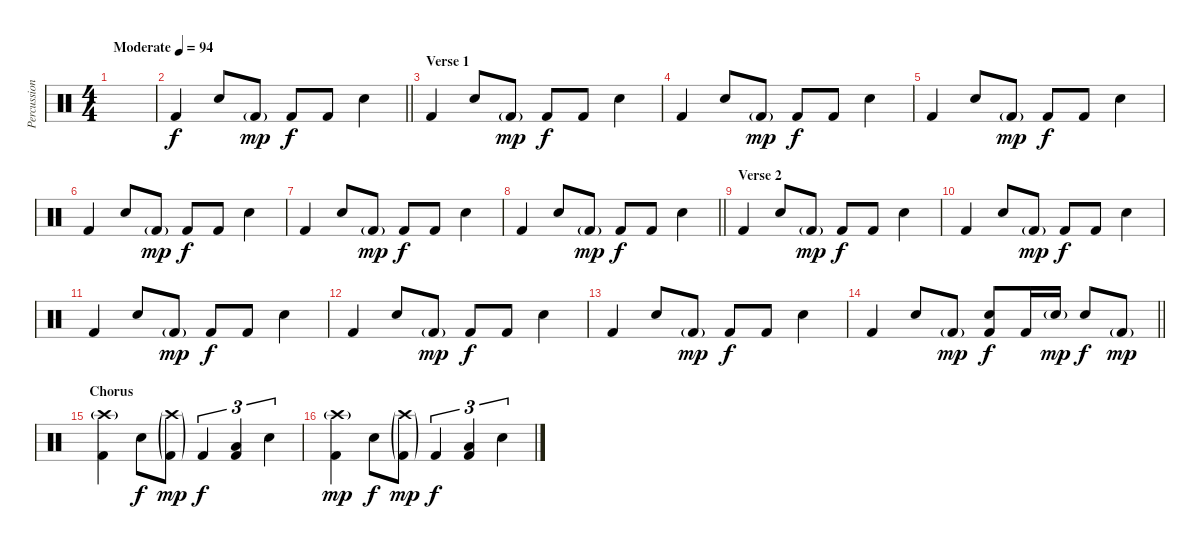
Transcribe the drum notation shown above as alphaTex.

\track ("Percussion" "Percussion") {instrument percussion}
\staff {score}
\articulation defaults
\ts (4 4)
\tempo (94 "Moderate")
\clef neutral
\ks c
|
\barLineRight lightlight "Kick (hit) 2".4 "Snare (hit) 2".8 "Kick (hit) 2"{g}.8{dy mp} "Kick (hit) 2".8{dy f} "Kick (hit) 2".8 "Snare (hit) 2".4
|
\section ("" "Verse 1")
"Kick (hit) 2".4 "Snare (hit) 2".8 "Kick (hit) 2"{g}.8{dy mp} "Kick (hit) 2".8{dy f} "Kick (hit) 2".8 "Snare (hit) 2".4 |
"Kick (hit) 2".4 "Snare (hit) 2".8 "Kick (hit) 2"{g}.8{dy mp} "Kick (hit) 2".8{dy f} "Kick (hit) 2".8 "Snare (hit) 2".4 |
"Kick (hit) 2".4 "Snare (hit) 2".8 "Kick (hit) 2"{g}.8{dy mp} "Kick (hit) 2".8{dy f} "Kick (hit) 2".8 "Snare (hit) 2".4 |
"Kick (hit) 2".4 "Snare (hit) 2".8 "Kick (hit) 2"{g}.8{dy mp} "Kick (hit) 2".8{dy f} "Kick (hit) 2".8 "Snare (hit) 2".4 |
"Kick (hit) 2".4 "Snare (hit) 2".8 "Kick (hit) 2"{g}.8{dy mp} "Kick (hit) 2".8{dy f} "Kick (hit) 2".8 "Snare (hit) 2".4 |
\barLineRight lightlight "Kick (hit) 2".4 "Snare (hit) 2".8 "Kick (hit) 2"{g}.8{dy mp} "Kick (hit) 2".8{dy f} "Kick (hit) 2".8 "Snare (hit) 2".4
|
\section ("" "Verse 2")
"Kick (hit) 2".4 "Snare (hit) 2".8 "Kick (hit) 2"{g}.8{dy mp} "Kick (hit) 2".8{dy f} "Kick (hit) 2".8 "Snare (hit) 2".4 |
"Kick (hit) 2".4 "Snare (hit) 2".8 "Kick (hit) 2"{g}.8{dy mp} "Kick (hit) 2".8{dy f} "Kick (hit) 2".8 "Snare (hit) 2".4 |
"Kick (hit) 2".4 "Snare (hit) 2".8 "Kick (hit) 2"{g}.8{dy mp} "Kick (hit) 2".8{dy f} "Kick (hit) 2".8 "Snare (hit) 2".4 |
"Kick (hit) 2".4 "Snare (hit) 2".8 "Kick (hit) 2"{g}.8{dy mp} "Kick (hit) 2".8{dy f} "Kick (hit) 2".8 "Snare (hit) 2".4 |
"Kick (hit) 2".4 "Snare (hit) 2".8 "Kick (hit) 2"{g}.8{dy mp} "Kick (hit) 2".8{dy f} "Kick (hit) 2".8 "Snare (hit) 2".4 |
\barLineRight lightlight "Kick (hit) 2".4 "Snare (hit) 2".8 "Kick (hit) 2"{g}.8{dy mp}
("Snare (hit) 2" "Kick (hit) 2").8{dy f} "Kick (hit) 2".16 "Snare (hit) 2"{g}.16{dy mp} "Snare (hit) 2".8{dy f} "Kick (hit) 2"{g}.8{dy mp} |
\section ("" "Chorus")
("Crash high (hit)"{g} "Kick (hit) 2").4 "Snare (hit) 2".8{dy f} ("Crash high (hit)"{g} "Kick (hit) 2"{g}).8{dy mp} "Kick (hit) 2".4{tu (3 2) dy f} ("Low Floor Tom (hit)" "Kick (hit) 2").4{tu (3 2)} "Snare (hit) 2".4{tu (3 2)} |
("Crash high (hit)"{g} "Kick (hit) 2").4{dy mp} "Snare (hit) 2".8{dy f} ("Crash high (hit)"{g} "Kick (hit) 2"{g}).8{dy mp} "Kick (hit) 2".4{tu (3 2) dy f} ("Low Floor Tom (hit)" "Kick (hit) 2").4{tu (3 2)} "Snare (hit) 2".4{tu (3 2)}
